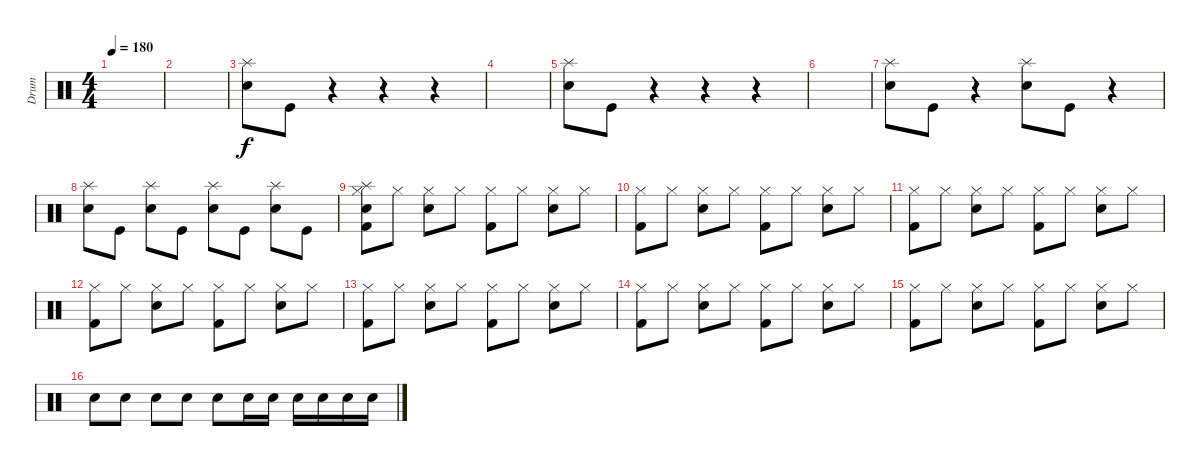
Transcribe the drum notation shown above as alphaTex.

\track ("Drum" "Drum") {instrument percussion}
\staff {score}
\articulation defaults
\ts (4 4)
\tempo 180
\clef neutral
\ks c
|
|
("Splash (hit)" "Snare (hit) 2").8 "Kick (hit)".8 r.4 r.4 r.4 |
|
("Splash (hit)" "Snare (hit) 2").8 "Kick (hit)".8 r.4 r.4 r.4 |
|
("Splash (hit)" "Snare (hit) 2").8 "Kick (hit)".8 r.4 ("Splash (hit)" "Snare (hit) 2").8 "Kick (hit)".8 r.4 |
("Splash (hit)" "Snare (hit) 2").8 "Kick (hit)".8 ("Splash (hit)" "Snare (hit) 2").8 "Kick (hit)".8 ("Splash (hit)" "Snare (hit) 2").8 "Kick (hit)".8 ("Splash (hit)" "Snare (hit) 2").8 "Kick (hit)".8 |
("Hi-Hat (closed)" "Kick (hit) 2" "Splash (hit)" "Snare (hit) 2").8 "Hi-Hat (closed)".8 ("Hi-Hat (closed)" "Snare (hit) 2").8 "Hi-Hat (closed)".8 ("Hi-Hat (closed)" "Kick (hit) 2").8 "Hi-Hat (closed)".8 ("Hi-Hat (closed)" "Snare (hit) 2").8 "Hi-Hat (closed)".8 |
("Hi-Hat (closed)" "Kick (hit) 2").8 "Hi-Hat (closed)".8 ("Hi-Hat (closed)" "Snare (hit) 2").8 "Hi-Hat (closed)".8 ("Hi-Hat (closed)" "Kick (hit) 2").8 "Hi-Hat (closed)".8 ("Hi-Hat (closed)" "Snare (hit) 2").8 "Hi-Hat (closed)".8 |
("Hi-Hat (closed)" "Kick (hit) 2").8 "Hi-Hat (closed)".8 ("Hi-Hat (closed)" "Snare (hit) 2").8 "Hi-Hat (closed)".8 ("Hi-Hat (closed)" "Kick (hit) 2").8 "Hi-Hat (closed)".8 ("Hi-Hat (closed)" "Snare (hit) 2").8 "Hi-Hat (closed)".8 |
("Hi-Hat (closed)" "Kick (hit) 2").8 "Hi-Hat (closed)".8 ("Hi-Hat (closed)" "Snare (hit) 2").8 "Hi-Hat (closed)".8 ("Hi-Hat (closed)" "Kick (hit) 2").8 "Hi-Hat (closed)".8 ("Hi-Hat (closed)" "Snare (hit) 2").8 "Hi-Hat (closed)".8 |
("Hi-Hat (closed)" "Kick (hit) 2").8 "Hi-Hat (closed)".8 ("Hi-Hat (closed)" "Snare (hit) 2").8 "Hi-Hat (closed)".8 ("Hi-Hat (closed)" "Kick (hit) 2").8 "Hi-Hat (closed)".8 ("Hi-Hat (closed)" "Snare (hit) 2").8 "Hi-Hat (closed)".8 |
("Hi-Hat (closed)" "Kick (hit) 2").8 "Hi-Hat (closed)".8 ("Hi-Hat (closed)" "Snare (hit) 2").8 "Hi-Hat (closed)".8 ("Hi-Hat (closed)" "Kick (hit) 2").8 "Hi-Hat (closed)".8 ("Hi-Hat (closed)" "Snare (hit) 2").8 "Hi-Hat (closed)".8 |
("Hi-Hat (closed)" "Kick (hit) 2").8 "Hi-Hat (closed)".8 ("Hi-Hat (closed)" "Snare (hit) 2").8 "Hi-Hat (closed)".8 ("Hi-Hat (closed)" "Kick (hit) 2").8 "Hi-Hat (closed)".8 ("Hi-Hat (closed)" "Snare (hit) 2").8 "Hi-Hat (closed)".8 |
"Electric Snare (hit)".8 "Electric Snare (hit)".8 "Electric Snare (hit)".8 "Electric Snare (hit)".8 "Electric Snare (hit)".8 "Electric Snare (hit)".16 "Electric Snare (hit)".16 "Electric Snare (hit)".16 "Electric Snare (hit)".16 "Electric Snare (hit)".16 "Electric Snare (hit)".16
